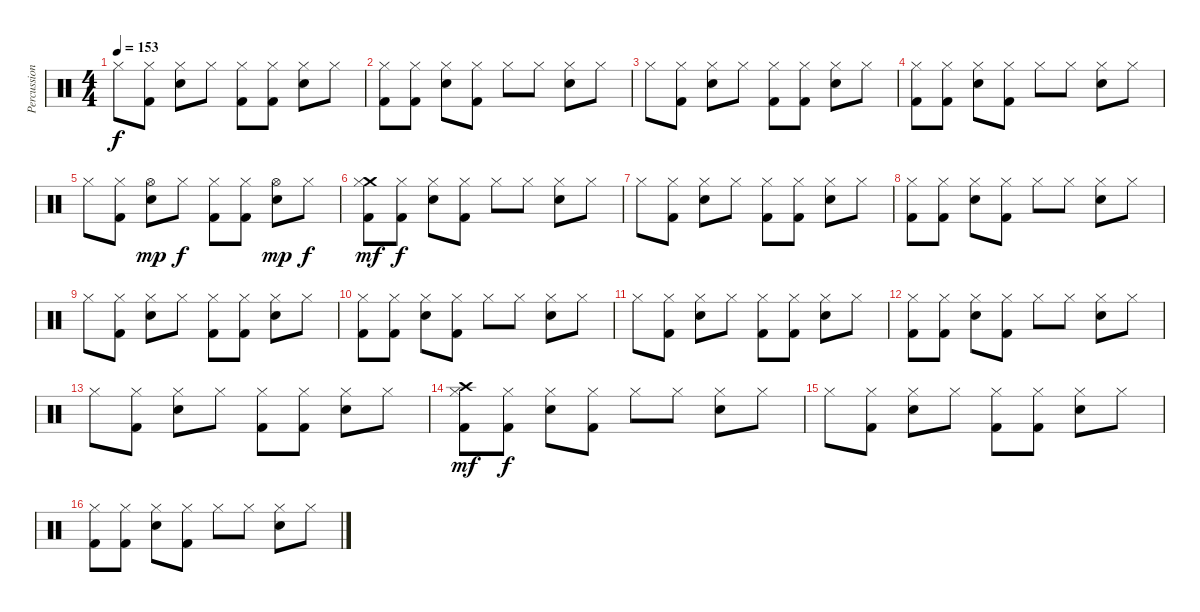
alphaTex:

\track ("Percussion" "Percussion") {instrument percussion}
\staff {score}
\articulation defaults
\ts (4 4)
\tempo 153
\clef neutral
\ks c "Hi-Hat (closed)".8{dy f}
("Hi-Hat (closed)" "Kick (hit) 2").8 ("Hi-Hat (closed)" "Electric Snare (hit)").8 "Hi-Hat (closed)".8 ("Hi-Hat (closed)" "Kick (hit) 2").8 ("Hi-Hat (closed)" "Kick (hit) 2").8 ("Hi-Hat (closed)" "Electric Snare (hit)").8 "Hi-Hat (closed)".8 |
("Hi-Hat (closed)" "Kick (hit) 2").8 ("Hi-Hat (closed)" "Kick (hit) 2").8 ("Hi-Hat (closed)" "Electric Snare (hit)").8 ("Hi-Hat (closed)" "Kick (hit) 2").8 "Hi-Hat (closed)".8 "Hi-Hat (closed)".8 ("Hi-Hat (closed)" "Electric Snare (hit)").8 "Hi-Hat (closed)".8 |
"Hi-Hat (closed)".8 ("Hi-Hat (closed)" "Kick (hit) 2").8 ("Hi-Hat (closed)" "Electric Snare (hit)").8 "Hi-Hat (closed)".8 ("Hi-Hat (closed)" "Kick (hit) 2").8 ("Hi-Hat (closed)" "Kick (hit) 2").8 ("Hi-Hat (closed)" "Electric Snare (hit)").8 "Hi-Hat (closed)".8 |
("Hi-Hat (closed)" "Kick (hit) 2").8 ("Hi-Hat (closed)" "Kick (hit) 2").8 ("Hi-Hat (closed)" "Electric Snare (hit)").8 ("Hi-Hat (closed)" "Kick (hit) 2").8 "Hi-Hat (closed)".8 "Hi-Hat (closed)".8 ("Hi-Hat (closed)" "Electric Snare (hit)").8 "Hi-Hat (closed)".8 |
"Hi-Hat (closed)".8 ("Hi-Hat (closed)" "Kick (hit) 2").8 ("Hi-Hat (open)" "Electric Snare (hit)").8{dy mp} "Hi-Hat (closed)".8{dy f} ("Hi-Hat (closed)" "Kick (hit) 2").8 ("Hi-Hat (closed)" "Kick (hit) 2").8 ("Hi-Hat (open)" "Electric Snare (hit)").8{dy mp} "Hi-Hat (closed)".8{dy f} |
("Crash medium (hit)" "Hi-Hat (closed)" "Kick (hit) 2").8{dy mf} ("Hi-Hat (closed)" "Kick (hit) 2").8{dy f} ("Hi-Hat (closed)" "Electric Snare (hit)").8 ("Hi-Hat (closed)" "Kick (hit) 2").8 "Hi-Hat (closed)".8 "Hi-Hat (closed)".8 ("Hi-Hat (closed)" "Electric Snare (hit)").8 "Hi-Hat (closed)".8 |
"Hi-Hat (closed)".8 ("Hi-Hat (closed)" "Kick (hit) 2").8 ("Hi-Hat (closed)" "Electric Snare (hit)").8 "Hi-Hat (closed)".8 ("Hi-Hat (closed)" "Kick (hit) 2").8 ("Hi-Hat (closed)" "Kick (hit) 2").8 ("Hi-Hat (closed)" "Electric Snare (hit)").8 "Hi-Hat (closed)".8 |
("Hi-Hat (closed)" "Kick (hit) 2").8 ("Hi-Hat (closed)" "Kick (hit) 2").8 ("Hi-Hat (closed)" "Electric Snare (hit)").8 ("Hi-Hat (closed)" "Kick (hit) 2").8 "Hi-Hat (closed)".8 "Hi-Hat (closed)".8 ("Hi-Hat (closed)" "Electric Snare (hit)").8 "Hi-Hat (closed)".8 |
"Hi-Hat (closed)".8 ("Hi-Hat (closed)" "Kick (hit) 2").8 ("Hi-Hat (closed)" "Electric Snare (hit)").8 "Hi-Hat (closed)".8 ("Hi-Hat (closed)" "Kick (hit) 2").8 ("Hi-Hat (closed)" "Kick (hit) 2").8 ("Hi-Hat (closed)" "Electric Snare (hit)").8 "Hi-Hat (closed)".8 |
("Hi-Hat (closed)" "Kick (hit) 2").8 ("Hi-Hat (closed)" "Kick (hit) 2").8 ("Hi-Hat (closed)" "Electric Snare (hit)").8 ("Hi-Hat (closed)" "Kick (hit) 2").8 "Hi-Hat (closed)".8 "Hi-Hat (closed)".8 ("Hi-Hat (closed)" "Electric Snare (hit)").8 "Hi-Hat (closed)".8 |
"Hi-Hat (closed)".8 ("Hi-Hat (closed)" "Kick (hit) 2").8 ("Hi-Hat (closed)" "Electric Snare (hit)").8 "Hi-Hat (closed)".8 ("Hi-Hat (closed)" "Kick (hit) 2").8 ("Hi-Hat (closed)" "Kick (hit) 2").8 ("Hi-Hat (closed)" "Electric Snare (hit)").8 "Hi-Hat (closed)".8 |
("Hi-Hat (closed)" "Kick (hit) 2").8 ("Hi-Hat (closed)" "Kick (hit) 2").8 ("Hi-Hat (closed)" "Electric Snare (hit)").8 ("Hi-Hat (closed)" "Kick (hit) 2").8 "Hi-Hat (closed)".8 "Hi-Hat (closed)".8 ("Hi-Hat (closed)" "Electric Snare (hit)").8 "Hi-Hat (closed)".8 |
"Hi-Hat (closed)".8 ("Hi-Hat (closed)" "Kick (hit) 2").8 ("Hi-Hat (closed)" "Electric Snare (hit)").8 "Hi-Hat (closed)".8 ("Hi-Hat (closed)" "Kick (hit) 2").8 ("Hi-Hat (closed)" "Kick (hit) 2").8 ("Hi-Hat (closed)" "Electric Snare (hit)").8 "Hi-Hat (closed)".8 |
("Crash high (hit)" "Hi-Hat (closed)" "Kick (hit) 2").8{dy mf} ("Hi-Hat (closed)" "Kick (hit) 2").8{dy f} ("Hi-Hat (closed)" "Electric Snare (hit)").8 ("Hi-Hat (closed)" "Kick (hit) 2").8 "Hi-Hat (closed)".8 "Hi-Hat (closed)".8 ("Hi-Hat (closed)" "Electric Snare (hit)").8 "Hi-Hat (closed)".8 |
"Hi-Hat (closed)".8 ("Hi-Hat (closed)" "Kick (hit) 2").8 ("Hi-Hat (closed)" "Electric Snare (hit)").8 "Hi-Hat (closed)".8 ("Hi-Hat (closed)" "Kick (hit) 2").8 ("Hi-Hat (closed)" "Kick (hit) 2").8 ("Hi-Hat (closed)" "Electric Snare (hit)").8 "Hi-Hat (closed)".8 |
("Hi-Hat (closed)" "Kick (hit) 2").8 ("Hi-Hat (closed)" "Kick (hit) 2").8 ("Hi-Hat (closed)" "Electric Snare (hit)").8 ("Hi-Hat (closed)" "Kick (hit) 2").8 "Hi-Hat (closed)".8 "Hi-Hat (closed)".8 ("Hi-Hat (closed)" "Electric Snare (hit)").8 "Hi-Hat (closed)".8
